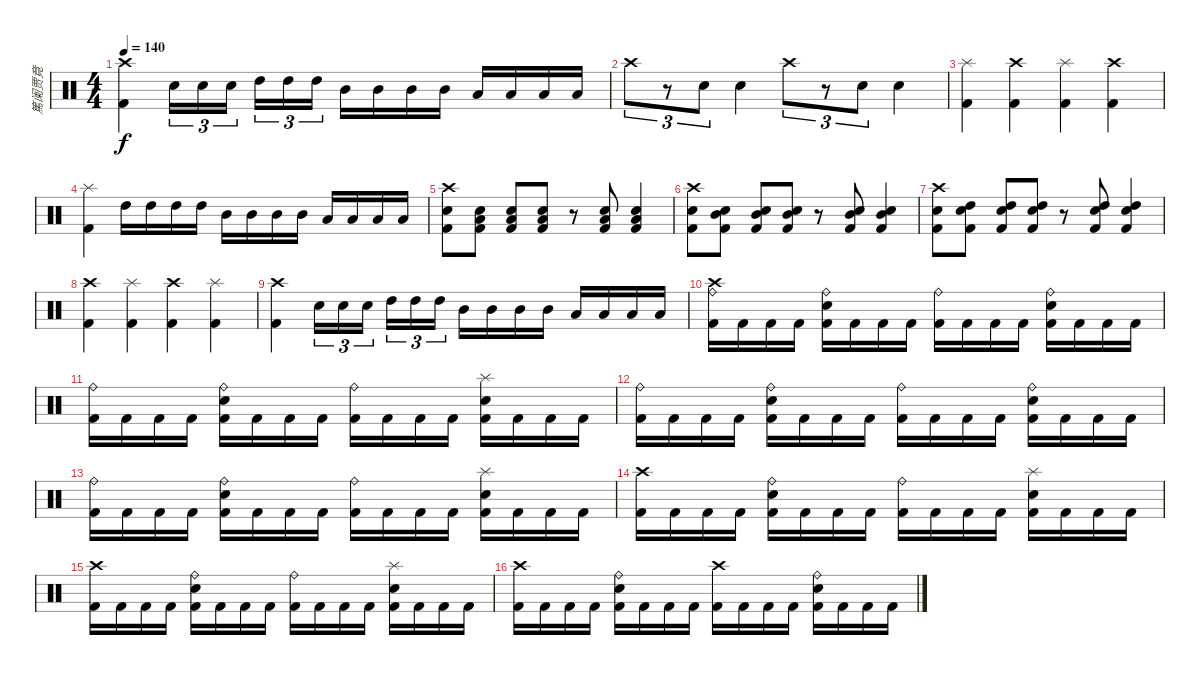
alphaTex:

\track ("篤阑贾竟" "篤阑贾竟") {instrument percussion}
\staff {score}
\articulation defaults
\ts (4 4)
\tempo 140
\clef neutral
\ks c
("Crash high (hit)" "Kick (hit) 2").4{dy f} "Snare (hit) 2".16{tu (3 2)} "Snare (hit) 2".16{tu (3 2)} "Snare (hit) 2".16{tu (3 2)} "High Tom (hit)".16{tu (3 2)} "High Tom (hit)".16{tu (3 2)} "High Tom (hit)".16{tu (3 2)} "Mid Tom (hit)".16 "Mid Tom (hit)".16 "Mid Tom (hit)".16 "Mid Tom (hit)".16 "Low Floor Tom (hit)".16 "Low Floor Tom (hit)".16 "Low Floor Tom (hit)".16 "Low Floor Tom (hit)".16 |
"Crash high (hit)".8{tu (3 2)} r.8{tu (3 2)} "Snare (hit) 2".8{tu (3 2)} "Snare (hit) 2".4 "Crash high (hit)".8{tu (3 2)} r.8{tu (3 2)} "Snare (hit) 2".8{tu (3 2)} "Snare (hit) 2".4 |
("Splash (hit)" "Kick (hit) 2").4 ("Crash high (hit)" "Kick (hit) 2").4 ("Splash (hit)" "Kick (hit) 2").4 ("Crash high (hit)" "Kick (hit) 2").4 |
("Splash (hit)" "Kick (hit) 2").4 "High Tom (hit)".16 "High Tom (hit)".16 "High Tom (hit)".16 "High Tom (hit)".16 "Mid Tom (hit)".16 "Mid Tom (hit)".16 "Mid Tom (hit)".16 "Mid Tom (hit)".16 "Low Floor Tom (hit)".16 "Low Floor Tom (hit)".16 "Low Floor Tom (hit)".16 "Low Floor Tom (hit)".16 |
("Crash high (hit)" "Snare (hit) 2" "Kick (hit) 2").8 ("Low Floor Tom (hit)" "Snare (hit) 2" "Kick (hit) 2").8 ("Low Floor Tom (hit)" "Snare (hit) 2" "Kick (hit) 2").8 ("Low Floor Tom (hit)" "Snare (hit) 2" "Kick (hit) 2").8 r.8 ("Low Floor Tom (hit)" "Snare (hit) 2" "Kick (hit) 2").8 ("Low Floor Tom (hit)" "Snare (hit) 2" "Kick (hit) 2").4 |
("Crash high (hit)" "Snare (hit) 2" "Kick (hit) 2").8 ("Mid Tom (hit)" "Snare (hit) 2" "Kick (hit) 2").8 ("Mid Tom (hit)" "Snare (hit) 2" "Kick (hit) 2").8 ("Mid Tom (hit)" "Snare (hit) 2" "Kick (hit) 2").8 r.8 ("Mid Tom (hit)" "Snare (hit) 2" "Kick (hit) 2").8 ("Mid Tom (hit)" "Snare (hit) 2" "Kick (hit) 2").4 |
("Crash high (hit)" "Snare (hit) 2" "Kick (hit) 2").8 ("High Tom (hit)" "Snare (hit) 2" "Kick (hit) 2").8 ("High Tom (hit)" "Snare (hit) 2" "Kick (hit) 2").8 ("High Tom (hit)" "Snare (hit) 2" "Kick (hit) 2").8 r.8 ("High Tom (hit)" "Snare (hit) 2" "Kick (hit) 2").8 ("High Tom (hit)" "Snare (hit) 2" "Kick (hit) 2").4 |
("Crash high (hit)" "Kick (hit) 2").4 ("Splash (hit)" "Kick (hit) 2").4 ("Crash high (hit)" "Kick (hit) 2").4 ("Splash (hit)" "Kick (hit) 2").4 |
("Crash high (hit)" "Kick (hit) 2").4 "Snare (hit) 2".16{tu (3 2)} "Snare (hit) 2".16{tu (3 2)} "Snare (hit) 2".16{tu (3 2)} "High Tom (hit)".16{tu (3 2)} "High Tom (hit)".16{tu (3 2)} "High Tom (hit)".16{tu (3 2)} "Mid Tom (hit)".16 "Mid Tom (hit)".16 "Mid Tom (hit)".16 "Mid Tom (hit)".16 "Low Floor Tom (hit)".16 "Low Floor Tom (hit)".16 "Low Floor Tom (hit)".16 "Low Floor Tom (hit)".16 |
("Ride (bell)" "Crash high (hit)" "Kick (hit) 2").16 "Kick (hit) 2".16 "Kick (hit) 2".16 "Kick (hit) 2".16 ("Ride (bell)" "Snare (hit) 2" "Kick (hit) 2").16 "Kick (hit) 2".16 "Kick (hit) 2".16 "Kick (hit) 2".16 ("Ride (bell)" "Kick (hit) 2").16 "Kick (hit) 2".16 "Kick (hit) 2".16 "Kick (hit) 2".16 ("Ride (bell)" "Snare (hit) 2" "Kick (hit) 2").16 "Kick (hit) 2".16 "Kick (hit) 2".16 "Kick (hit) 2".16 |
("Ride (bell)" "Kick (hit) 2").16 "Kick (hit) 2".16 "Kick (hit) 2".16 "Kick (hit) 2".16 ("Ride (bell)" "Snare (hit) 2" "Kick (hit) 2").16 "Kick (hit) 2".16 "Kick (hit) 2".16 "Kick (hit) 2".16 ("Ride (bell)" "Kick (hit) 2").16 "Kick (hit) 2".16 "Kick (hit) 2".16 "Kick (hit) 2".16 ("Splash (hit)" "Snare (hit) 2" "Kick (hit) 2").16 "Kick (hit) 2".16 "Kick (hit) 2".16 "Kick (hit) 2".16 |
("Ride (bell)" "Kick (hit) 2").16 "Kick (hit) 2".16 "Kick (hit) 2".16 "Kick (hit) 2".16 ("Ride (bell)" "Snare (hit) 2" "Kick (hit) 2").16 "Kick (hit) 2".16 "Kick (hit) 2".16 "Kick (hit) 2".16 ("Ride (bell)" "Kick (hit) 2").16 "Kick (hit) 2".16 "Kick (hit) 2".16 "Kick (hit) 2".16 ("Ride (bell)" "Snare (hit) 2" "Kick (hit) 2").16 "Kick (hit) 2".16 "Kick (hit) 2".16 "Kick (hit) 2".16 |
("Ride (bell)" "Kick (hit) 2").16 "Kick (hit) 2".16 "Kick (hit) 2".16 "Kick (hit) 2".16 ("Ride (bell)" "Snare (hit) 2" "Kick (hit) 2").16 "Kick (hit) 2".16 "Kick (hit) 2".16 "Kick (hit) 2".16 ("Ride (bell)" "Kick (hit) 2").16 "Kick (hit) 2".16 "Kick (hit) 2".16 "Kick (hit) 2".16 ("Splash (hit)" "Snare (hit) 2" "Kick (hit) 2").16 "Kick (hit) 2".16 "Kick (hit) 2".16 "Kick (hit) 2".16 |
("Crash high (hit)" "Kick (hit) 2").16 "Kick (hit) 2".16 "Kick (hit) 2".16 "Kick (hit) 2".16 ("Ride (bell)" "Snare (hit) 2" "Kick (hit) 2").16 "Kick (hit) 2".16 "Kick (hit) 2".16 "Kick (hit) 2".16 ("Ride (bell)" "Kick (hit) 2").16 "Kick (hit) 2".16 "Kick (hit) 2".16 "Kick (hit) 2".16 ("Splash (hit)" "Snare (hit) 2" "Kick (hit) 2").16 "Kick (hit) 2".16 "Kick (hit) 2".16 "Kick (hit) 2".16 |
("Crash high (hit)" "Kick (hit) 2").16 "Kick (hit) 2".16 "Kick (hit) 2".16 "Kick (hit) 2".16 ("Ride (bell)" "Snare (hit) 2" "Kick (hit) 2").16 "Kick (hit) 2".16 "Kick (hit) 2".16 "Kick (hit) 2".16 ("Ride (bell)" "Kick (hit) 2").16 "Kick (hit) 2".16 "Kick (hit) 2".16 "Kick (hit) 2".16 ("Splash (hit)" "Snare (hit) 2" "Kick (hit) 2").16 "Kick (hit) 2".16 "Kick (hit) 2".16 "Kick (hit) 2".16 |
("Crash high (hit)" "Kick (hit) 2").16 "Kick (hit) 2".16 "Kick (hit) 2".16 "Kick (hit) 2".16 ("Ride (bell)" "Snare (hit) 2" "Kick (hit) 2").16 "Kick (hit) 2".16 "Kick (hit) 2".16 "Kick (hit) 2".16 ("Crash high (hit)" "Kick (hit) 2").16 "Kick (hit) 2".16 "Kick (hit) 2".16 "Kick (hit) 2".16 ("Ride (bell)" "Snare (hit) 2" "Kick (hit) 2").16 "Kick (hit) 2".16 "Kick (hit) 2".16 "Kick (hit) 2".16
